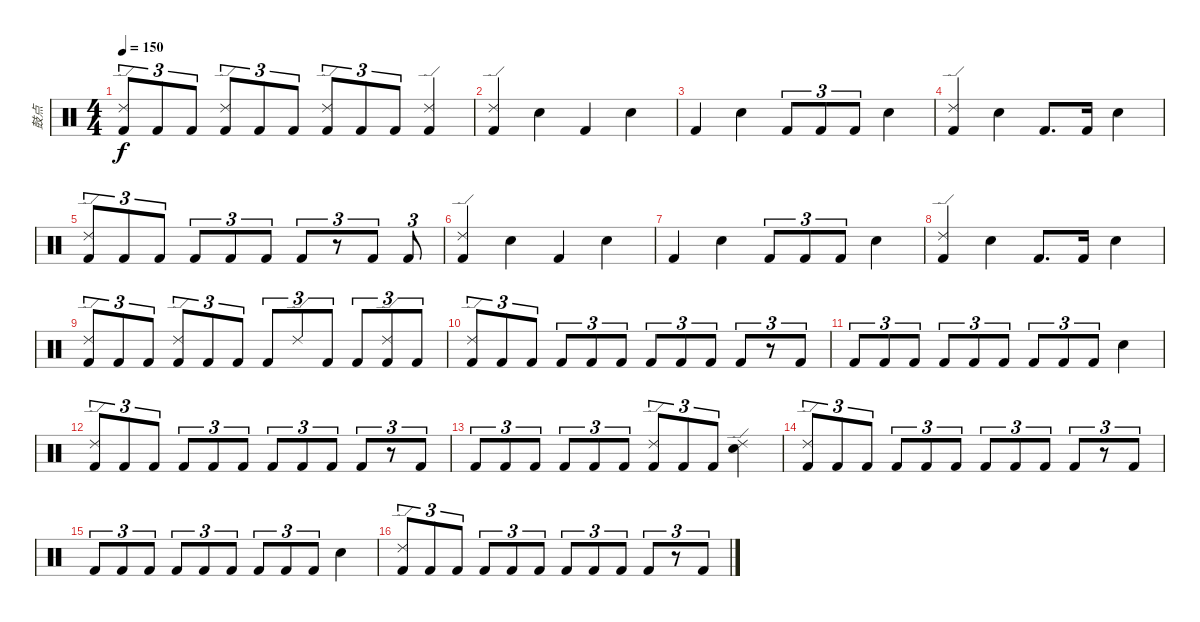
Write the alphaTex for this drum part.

\track ("鼓点" "鼓点") {instrument percussion}
\staff {score}
\articulation defaults
\ts (4 4)
\tempo 150
\clef neutral
\ks c
("Ride (edge) 2" "Kick (hit) 2").8{tu (3 2) dy f} "Kick (hit) 2".8{tu (3 2)} "Kick (hit) 2".8{tu (3 2)} ("Ride (edge) 2" "Kick (hit) 2").8{tu (3 2)} "Kick (hit) 2".8{tu (3 2)} "Kick (hit) 2".8{tu (3 2)} ("Ride (edge) 2" "Kick (hit) 2").8{tu (3 2)} "Kick (hit) 2".8{tu (3 2)} "Kick (hit) 2".8{tu (3 2)} ("Ride (edge) 2" "Kick (hit) 2").4 |
("Kick (hit) 2" "Ride (edge) 2").4 "Snare (hit) 2".4 "Kick (hit) 2".4 "Snare (hit) 2".4 |
"Kick (hit) 2".4 "Snare (hit) 2".4 "Kick (hit) 2".8{tu (3 2)} "Kick (hit) 2".8{tu (3 2)} "Kick (hit) 2".8{tu (3 2)} "Snare (hit) 2".4 |
("Kick (hit) 2" "Ride (edge) 2").4 "Snare (hit) 2".4 "Kick (hit) 2".8{d} "Kick (hit) 2".16 "Snare (hit) 2".4 |
("Ride (edge) 2" "Kick (hit) 2").8{tu (3 2)} "Kick (hit) 2".8{tu (3 2)} "Kick (hit) 2".8{tu (3 2)} "Kick (hit) 2".8{tu (3 2)} "Kick (hit) 2".8{tu (3 2)} "Kick (hit) 2".8{tu (3 2)} "Kick (hit) 2".8{tu (3 2)} r.8{tu (3 2)} "Kick (hit) 2".8{tu (3 2)} "Kick (hit) 2".8{tu (3 2)} |
("Kick (hit) 2" "Ride (edge) 2").4 "Snare (hit) 2".4 "Kick (hit) 2".4 "Snare (hit) 2".4 |
"Kick (hit) 2".4 "Snare (hit) 2".4 "Kick (hit) 2".8{tu (3 2)} "Kick (hit) 2".8{tu (3 2)} "Kick (hit) 2".8{tu (3 2)} "Snare (hit) 2".4 |
("Kick (hit) 2" "Ride (edge) 2").4 "Snare (hit) 2".4 "Kick (hit) 2".8{d} "Kick (hit) 2".16 "Snare (hit) 2".4 |
("Ride (edge) 2" "Kick (hit) 2").8{tu (3 2)} "Kick (hit) 2".8{tu (3 2)} "Kick (hit) 2".8{tu (3 2)} ("Ride (edge) 2" "Kick (hit) 2").8{tu (3 2)} "Kick (hit) 2".8{tu (3 2)} "Kick (hit) 2".8{tu (3 2)} "Kick (hit) 2".8{tu (3 2)} "Ride (edge) 2".8{tu (3 2)} "Kick (hit) 2".8{tu (3 2)} "Kick (hit) 2".8{tu (3 2)} ("Ride (edge) 2" "Kick (hit) 2").8{tu (3 2)} "Kick (hit) 2".8{tu (3 2)} |
("Kick (hit) 2" "Ride (edge) 2").8{tu (3 2)} "Kick (hit) 2".8{tu (3 2)} "Kick (hit) 2".8{tu (3 2)} "Kick (hit) 2".8{tu (3 2)} "Kick (hit) 2".8{tu (3 2)} "Kick (hit) 2".8{tu (3 2)} "Kick (hit) 2".8{tu (3 2)} "Kick (hit) 2".8{tu (3 2)} "Kick (hit) 2".8{tu (3 2)} "Kick (hit) 2".8{tu (3 2)} r.8{tu (3 2)} "Kick (hit) 2".8{tu (3 2)} |
"Kick (hit) 2".8{tu (3 2)} "Kick (hit) 2".8{tu (3 2)} "Kick (hit) 2".8{tu (3 2)} "Kick (hit) 2".8{tu (3 2)} "Kick (hit) 2".8{tu (3 2)} "Kick (hit) 2".8{tu (3 2)} "Kick (hit) 2".8{tu (3 2)} "Kick (hit) 2".8{tu (3 2)} "Kick (hit) 2".8{tu (3 2)} "Snare (hit) 2".4 |
("Kick (hit) 2" "Ride (edge) 2").8{tu (3 2)} "Kick (hit) 2".8{tu (3 2)} "Kick (hit) 2".8{tu (3 2)} "Kick (hit) 2".8{tu (3 2)} "Kick (hit) 2".8{tu (3 2)} "Kick (hit) 2".8{tu (3 2)} "Kick (hit) 2".8{tu (3 2)} "Kick (hit) 2".8{tu (3 2)} "Kick (hit) 2".8{tu (3 2)} "Kick (hit) 2".8{tu (3 2)} r.8{tu (3 2)} "Kick (hit) 2".8{tu (3 2)} |
"Kick (hit) 2".8{tu (3 2)} "Kick (hit) 2".8{tu (3 2)} "Kick (hit) 2".8{tu (3 2)} "Kick (hit) 2".8{tu (3 2)} "Kick (hit) 2".8{tu (3 2)} "Kick (hit) 2".8{tu (3 2)} ("Kick (hit) 2" "Ride (edge) 2").8{tu (3 2)} "Kick (hit) 2".8{tu (3 2)} "Kick (hit) 2".8{tu (3 2)} ("Snare (hit) 2" "Ride (edge) 2").4 |
("Kick (hit) 2" "Ride (edge) 2").8{tu (3 2)} "Kick (hit) 2".8{tu (3 2)} "Kick (hit) 2".8{tu (3 2)} "Kick (hit) 2".8{tu (3 2)} "Kick (hit) 2".8{tu (3 2)} "Kick (hit) 2".8{tu (3 2)} "Kick (hit) 2".8{tu (3 2)} "Kick (hit) 2".8{tu (3 2)} "Kick (hit) 2".8{tu (3 2)} "Kick (hit) 2".8{tu (3 2)} r.8{tu (3 2)} "Kick (hit) 2".8{tu (3 2)} |
"Kick (hit) 2".8{tu (3 2)} "Kick (hit) 2".8{tu (3 2)} "Kick (hit) 2".8{tu (3 2)} "Kick (hit) 2".8{tu (3 2)} "Kick (hit) 2".8{tu (3 2)} "Kick (hit) 2".8{tu (3 2)} "Kick (hit) 2".8{tu (3 2)} "Kick (hit) 2".8{tu (3 2)} "Kick (hit) 2".8{tu (3 2)} "Snare (hit) 2".4 |
("Kick (hit) 2" "Ride (edge) 2").8{tu (3 2)} "Kick (hit) 2".8{tu (3 2)} "Kick (hit) 2".8{tu (3 2)} "Kick (hit) 2".8{tu (3 2)} "Kick (hit) 2".8{tu (3 2)} "Kick (hit) 2".8{tu (3 2)} "Kick (hit) 2".8{tu (3 2)} "Kick (hit) 2".8{tu (3 2)} "Kick (hit) 2".8{tu (3 2)} "Kick (hit) 2".8{tu (3 2)} r.8{tu (3 2)} "Kick (hit) 2".8{tu (3 2)}
